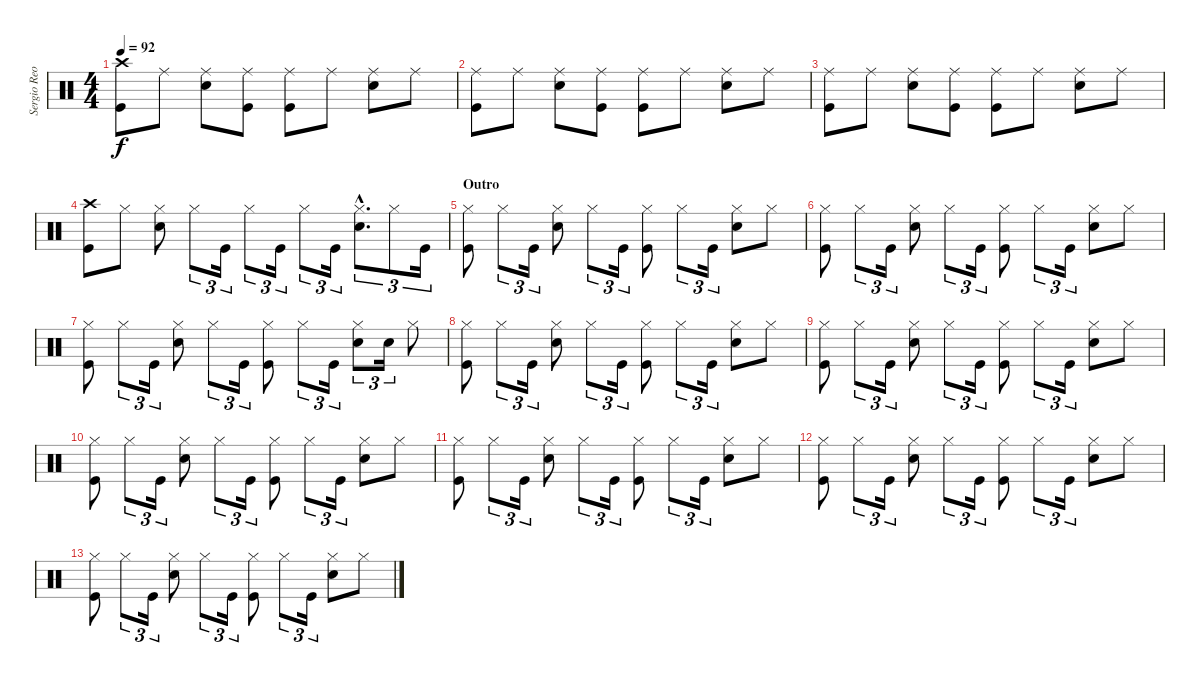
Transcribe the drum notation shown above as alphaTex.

\track ("Sergio Reoli" "Sergio Reo") {instrument percussion}
\staff {score}
\articulation defaults
\ts (4 4)
\tempo 92
\clef neutral
\ks c
("Crash high (hit)" "Kick (hit)").8{dy f} "Ride (middle)".8 ("Ride (middle)" "Electric Snare (hit)").8 ("Ride (middle)" "Kick (hit)").8 ("Ride (middle)" "Kick (hit)").8 "Ride (middle)".8 ("Ride (middle)" "Electric Snare (hit)").8 "Ride (middle)".8 |
("Ride (middle)" "Kick (hit)").8 "Ride (middle)".8 ("Ride (middle)" "Electric Snare (hit)").8 ("Ride (middle)" "Kick (hit)").8 ("Ride (middle)" "Kick (hit)").8 "Ride (middle)".8 ("Ride (middle)" "Electric Snare (hit)").8 "Ride (middle)".8 |
("Ride (middle)" "Kick (hit)").8 "Ride (middle)".8 ("Ride (middle)" "Electric Snare (hit)").8 ("Ride (middle)" "Kick (hit)").8 ("Ride (middle)" "Kick (hit)").8 "Ride (middle)".8 ("Ride (middle)" "Electric Snare (hit)").8 "Ride (middle)".8 |
("Crash high (hit)" "Kick (hit)").8 "Hi-Hat (closed)".8 ("Hi-Hat (closed)" "Electric Snare (hit)").8 "Hi-Hat (closed)".8{tu (3 2)} "Kick (hit)".16{tu (3 2)} "Hi-Hat (closed)".8{tu (3 2)} "Kick (hit)".16{tu (3 2)} "Hi-Hat (closed)".8{tu (3 2)} "Kick (hit)".16{tu (3 2)} ("Hi-Hat (closed)"{hac} "Electric Snare (hit)"{hac}).8{d tu (3 2)} "Hi-Hat (closed)".8{tu (3 2)} "Kick (hit)".16{tu (3 2)} |
\section ("" "Outro")
("Hi-Hat (closed)" "Kick (hit)").8 "Hi-Hat (closed)".8{tu (3 2)} "Kick (hit)".16{tu (3 2)} ("Hi-Hat (closed)" "Electric Snare (hit)").8 "Hi-Hat (closed)".8{tu (3 2)} "Kick (hit)".16{tu (3 2)} ("Hi-Hat (closed)" "Kick (hit)").8 "Hi-Hat (closed)".8{tu (3 2)} "Kick (hit)".16{tu (3 2)} ("Hi-Hat (closed)" "Electric Snare (hit)").8 "Hi-Hat (closed)".8 |
("Hi-Hat (closed)" "Kick (hit)").8 "Hi-Hat (closed)".8{tu (3 2)} "Kick (hit)".16{tu (3 2)} ("Hi-Hat (closed)" "Electric Snare (hit)").8 "Hi-Hat (closed)".8{tu (3 2)} "Kick (hit)".16{tu (3 2)} ("Hi-Hat (closed)" "Kick (hit)").8 "Hi-Hat (closed)".8{tu (3 2)} "Kick (hit)".16{tu (3 2)} ("Hi-Hat (closed)" "Electric Snare (hit)").8 "Hi-Hat (closed)".8 |
("Hi-Hat (closed)" "Kick (hit)").8 "Hi-Hat (closed)".8{tu (3 2)} "Kick (hit)".16{tu (3 2)} ("Hi-Hat (closed)" "Electric Snare (hit)").8 "Hi-Hat (closed)".8{tu (3 2)} "Kick (hit)".16{tu (3 2)} ("Hi-Hat (closed)" "Kick (hit)").8 "Hi-Hat (closed)".8{tu (3 2)} "Kick (hit)".16{tu (3 2)} ("Hi-Hat (closed)" "Electric Snare (hit)").8{tu (3 2)} "Electric Snare (hit)".16{tu (3 2)} "Hi-Hat (closed)".8 |
("Hi-Hat (closed)" "Kick (hit)").8 "Hi-Hat (closed)".8{tu (3 2)} "Kick (hit)".16{tu (3 2)} ("Hi-Hat (closed)" "Electric Snare (hit)").8 "Hi-Hat (closed)".8{tu (3 2)} "Kick (hit)".16{tu (3 2)} ("Hi-Hat (closed)" "Kick (hit)").8 "Hi-Hat (closed)".8{tu (3 2)} "Kick (hit)".16{tu (3 2)} ("Hi-Hat (closed)" "Electric Snare (hit)").8 "Hi-Hat (closed)".8 |
("Hi-Hat (closed)" "Kick (hit)").8 "Hi-Hat (closed)".8{tu (3 2)} "Kick (hit)".16{tu (3 2)} ("Hi-Hat (closed)" "Electric Snare (hit)").8 "Hi-Hat (closed)".8{tu (3 2)} "Kick (hit)".16{tu (3 2)} ("Hi-Hat (closed)" "Kick (hit)").8 "Hi-Hat (closed)".8{tu (3 2)} "Kick (hit)".16{tu (3 2)} ("Hi-Hat (closed)" "Electric Snare (hit)").8 "Hi-Hat (closed)".8 |
("Hi-Hat (closed)" "Kick (hit)").8 "Hi-Hat (closed)".8{tu (3 2)} "Kick (hit)".16{tu (3 2)} ("Hi-Hat (closed)" "Electric Snare (hit)").8 "Hi-Hat (closed)".8{tu (3 2)} "Kick (hit)".16{tu (3 2)} ("Hi-Hat (closed)" "Kick (hit)").8 "Hi-Hat (closed)".8{tu (3 2)} "Kick (hit)".16{tu (3 2)} ("Hi-Hat (closed)" "Electric Snare (hit)").8 "Hi-Hat (closed)".8 |
("Hi-Hat (closed)" "Kick (hit)").8 "Hi-Hat (closed)".8{tu (3 2)} "Kick (hit)".16{tu (3 2)} ("Hi-Hat (closed)" "Electric Snare (hit)").8 "Hi-Hat (closed)".8{tu (3 2)} "Kick (hit)".16{tu (3 2)} ("Hi-Hat (closed)" "Kick (hit)").8 "Hi-Hat (closed)".8{tu (3 2)} "Kick (hit)".16{tu (3 2)} ("Hi-Hat (closed)" "Electric Snare (hit)").8 "Hi-Hat (closed)".8 |
("Hi-Hat (closed)" "Kick (hit)").8 "Hi-Hat (closed)".8{tu (3 2)} "Kick (hit)".16{tu (3 2)} ("Hi-Hat (closed)" "Electric Snare (hit)").8 "Hi-Hat (closed)".8{tu (3 2)} "Kick (hit)".16{tu (3 2)} ("Hi-Hat (closed)" "Kick (hit)").8 "Hi-Hat (closed)".8{tu (3 2)} "Kick (hit)".16{tu (3 2)} ("Hi-Hat (closed)" "Electric Snare (hit)").8 "Hi-Hat (closed)".8 |
("Hi-Hat (closed)" "Kick (hit)").8 "Hi-Hat (closed)".8{tu (3 2)} "Kick (hit)".16{tu (3 2)} ("Hi-Hat (closed)" "Electric Snare (hit)").8 "Hi-Hat (closed)".8{tu (3 2)} "Kick (hit)".16{tu (3 2)} ("Hi-Hat (closed)" "Kick (hit)").8 "Hi-Hat (closed)".8{tu (3 2)} "Kick (hit)".16{tu (3 2)} ("Hi-Hat (closed)" "Electric Snare (hit)").8 "Hi-Hat (closed)".8
